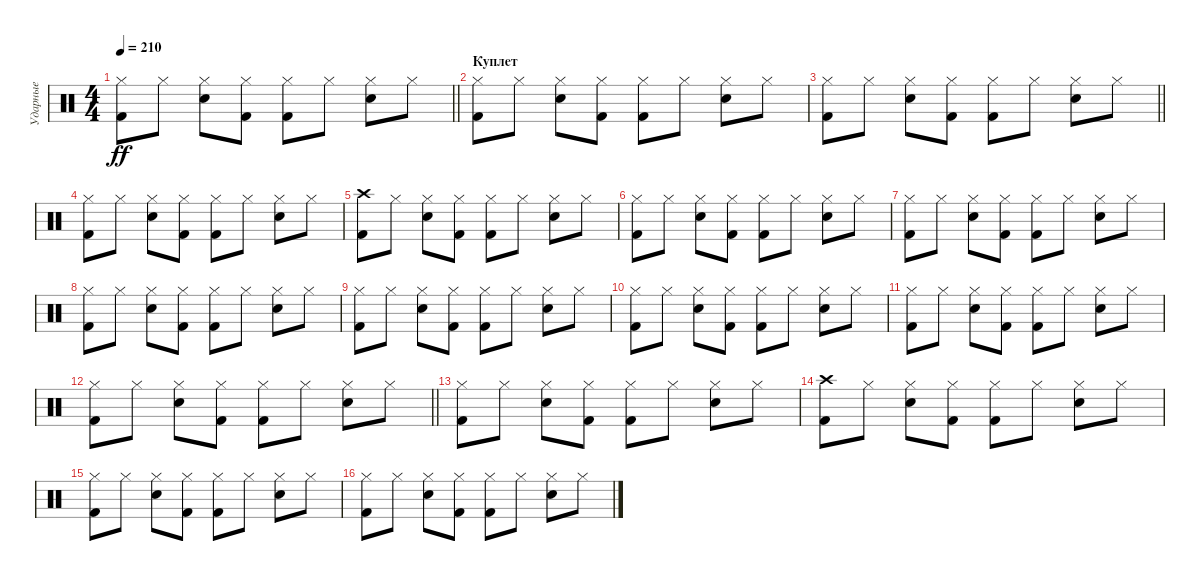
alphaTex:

\track ("Ударные" "Ударные") {instrument percussion}
\staff {score}
\articulation defaults
\ts (4 4)
\tempo 210
\clef neutral
\barLineRight lightlight
\ks c
("Hi-Hat (closed)" "Kick (hit) 2").8{dy ff} "Hi-Hat (closed)".8 ("Hi-Hat (closed)" "Snare (hit) 2").8 ("Hi-Hat (closed)" "Kick (hit) 2").8 ("Hi-Hat (closed)" "Kick (hit) 2").8 "Hi-Hat (closed)".8 ("Hi-Hat (closed)" "Snare (hit) 2").8 "Hi-Hat (closed)".8 |
\section ("" "Куплет")
("Hi-Hat (closed)" "Kick (hit) 2").8 "Hi-Hat (closed)".8 ("Hi-Hat (closed)" "Snare (hit) 2").8 ("Hi-Hat (closed)" "Kick (hit) 2").8 ("Hi-Hat (closed)" "Kick (hit) 2").8 "Hi-Hat (closed)".8 ("Hi-Hat (closed)" "Snare (hit) 2").8 "Hi-Hat (closed)".8 |
\barLineRight lightlight
("Hi-Hat (closed)" "Kick (hit) 2").8 "Hi-Hat (closed)".8 ("Hi-Hat (closed)" "Snare (hit) 2").8 ("Hi-Hat (closed)" "Kick (hit) 2").8 ("Hi-Hat (closed)" "Kick (hit) 2").8 "Hi-Hat (closed)".8 ("Hi-Hat (closed)" "Snare (hit) 2").8 "Hi-Hat (closed)".8 |
("Hi-Hat (closed)" "Kick (hit) 2").8 "Hi-Hat (closed)".8 ("Hi-Hat (closed)" "Snare (hit) 2").8 ("Hi-Hat (closed)" "Kick (hit) 2").8 ("Hi-Hat (closed)" "Kick (hit) 2").8 "Hi-Hat (closed)".8 ("Hi-Hat (closed)" "Snare (hit) 2").8 "Hi-Hat (closed)".8 |
("Crash high (hit)" "Kick (hit) 2").8 "Hi-Hat (closed)".8 ("Hi-Hat (closed)" "Snare (hit) 2").8 ("Hi-Hat (closed)" "Kick (hit) 2").8 ("Hi-Hat (closed)" "Kick (hit) 2").8 "Hi-Hat (closed)".8 ("Hi-Hat (closed)" "Snare (hit) 2").8 "Hi-Hat (closed)".8 |
("Hi-Hat (closed)" "Kick (hit) 2").8 "Hi-Hat (closed)".8 ("Hi-Hat (closed)" "Snare (hit) 2").8 ("Hi-Hat (closed)" "Kick (hit) 2").8 ("Hi-Hat (closed)" "Kick (hit) 2").8 "Hi-Hat (closed)".8 ("Hi-Hat (closed)" "Snare (hit) 2").8 "Hi-Hat (closed)".8 |
("Hi-Hat (closed)" "Kick (hit) 2").8 "Hi-Hat (closed)".8 ("Hi-Hat (closed)" "Snare (hit) 2").8 ("Hi-Hat (closed)" "Kick (hit) 2").8 ("Hi-Hat (closed)" "Kick (hit) 2").8 "Hi-Hat (closed)".8 ("Hi-Hat (closed)" "Snare (hit) 2").8 "Hi-Hat (closed)".8 |
("Hi-Hat (closed)" "Kick (hit) 2").8 "Hi-Hat (closed)".8 ("Hi-Hat (closed)" "Snare (hit) 2").8 ("Hi-Hat (closed)" "Kick (hit) 2").8 ("Hi-Hat (closed)" "Kick (hit) 2").8 "Hi-Hat (closed)".8 ("Hi-Hat (closed)" "Snare (hit) 2").8 "Hi-Hat (closed)".8 |
("Hi-Hat (closed)" "Kick (hit) 2").8 "Hi-Hat (closed)".8 ("Hi-Hat (closed)" "Snare (hit) 2").8 ("Hi-Hat (closed)" "Kick (hit) 2").8 ("Hi-Hat (closed)" "Kick (hit) 2").8 "Hi-Hat (closed)".8 ("Hi-Hat (closed)" "Snare (hit) 2").8 "Hi-Hat (closed)".8 |
("Hi-Hat (closed)" "Kick (hit) 2").8 "Hi-Hat (closed)".8 ("Hi-Hat (closed)" "Snare (hit) 2").8 ("Hi-Hat (closed)" "Kick (hit) 2").8 ("Hi-Hat (closed)" "Kick (hit) 2").8 "Hi-Hat (closed)".8 ("Hi-Hat (closed)" "Snare (hit) 2").8 "Hi-Hat (closed)".8 |
("Hi-Hat (closed)" "Kick (hit) 2").8 "Hi-Hat (closed)".8 ("Hi-Hat (closed)" "Snare (hit) 2").8 ("Hi-Hat (closed)" "Kick (hit) 2").8 ("Hi-Hat (closed)" "Kick (hit) 2").8 "Hi-Hat (closed)".8 ("Hi-Hat (closed)" "Snare (hit) 2").8 "Hi-Hat (closed)".8 |
\barLineRight lightlight
("Hi-Hat (closed)" "Kick (hit) 2").8 "Hi-Hat (closed)".8 ("Hi-Hat (closed)" "Snare (hit) 2").8 ("Hi-Hat (closed)" "Kick (hit) 2").8 ("Hi-Hat (closed)" "Kick (hit) 2").8 "Hi-Hat (closed)".8 ("Hi-Hat (closed)" "Snare (hit) 2").8 "Hi-Hat (closed)".8 |
("Hi-Hat (closed)" "Kick (hit) 2").8 "Hi-Hat (closed)".8 ("Hi-Hat (closed)" "Snare (hit) 2").8 ("Hi-Hat (closed)" "Kick (hit) 2").8 ("Hi-Hat (closed)" "Kick (hit) 2").8 "Hi-Hat (closed)".8 ("Hi-Hat (closed)" "Snare (hit) 2").8 "Hi-Hat (closed)".8 |
("Crash high (hit)" "Kick (hit) 2").8 "Hi-Hat (closed)".8 ("Hi-Hat (closed)" "Snare (hit) 2").8 ("Hi-Hat (closed)" "Kick (hit) 2").8 ("Hi-Hat (closed)" "Kick (hit) 2").8 "Hi-Hat (closed)".8 ("Hi-Hat (closed)" "Snare (hit) 2").8 "Hi-Hat (closed)".8 |
("Hi-Hat (closed)" "Kick (hit) 2").8 "Hi-Hat (closed)".8 ("Hi-Hat (closed)" "Snare (hit) 2").8 ("Hi-Hat (closed)" "Kick (hit) 2").8 ("Hi-Hat (closed)" "Kick (hit) 2").8 "Hi-Hat (closed)".8 ("Hi-Hat (closed)" "Snare (hit) 2").8 "Hi-Hat (closed)".8 |
("Hi-Hat (closed)" "Kick (hit) 2").8 "Hi-Hat (closed)".8 ("Hi-Hat (closed)" "Snare (hit) 2").8 ("Hi-Hat (closed)" "Kick (hit) 2").8 ("Hi-Hat (closed)" "Kick (hit) 2").8 "Hi-Hat (closed)".8 ("Hi-Hat (closed)" "Snare (hit) 2").8 "Hi-Hat (closed)".8
